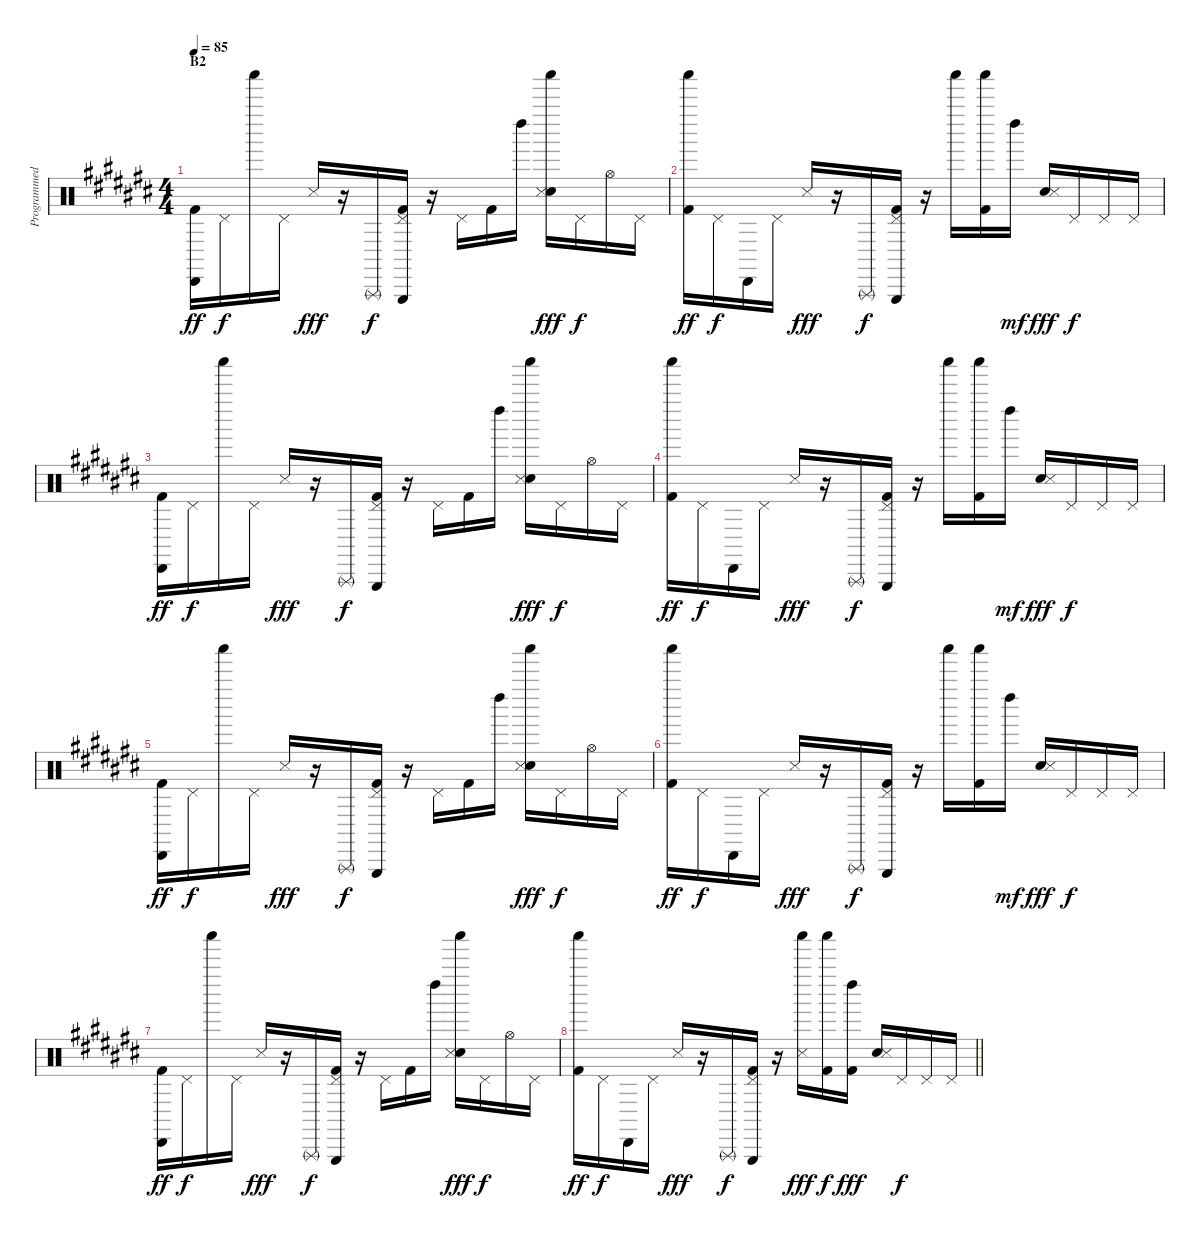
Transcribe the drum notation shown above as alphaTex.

\track ("Programmed Drum" "Programmed") {instrument percussion}
\staff {score}
\articulation defaults
\ts (4 4)
\section ("" "B2")
\tempo 85
\clef neutral
\ks c#
("Cabasa (hit)" "Kick (hit) 2").16{dy ff} "Pedal Hi-Hat (hit)".16{dy f} "Shaker (hit)".16 "Pedal Hi-Hat (hit)".16 "Snare (side stick) 3".16{dy fff} r.16 "Triangle (rnute)".16{dy f} ("Triangle (hit)" "Pedal Hi-Hat (hit)" "Kick (hit) 2").16 r.16 "Pedal Hi-Hat (hit)".16 "Kick (hit) 2".16 "Left Maraca (hit)".16 ("Shaker (hit)" "Hand Clap (hit)" "Snare (side stick) 3").16{dy fff} "Pedal Hi-Hat (hit)".16{dy f} "Hi-Hat (open)".16 "Pedal Hi-Hat (hit)".16 |
("Shaker (hit)" "Kick (hit) 2").16{dy ff} "Pedal Hi-Hat (hit)".16{dy f} "Cabasa (hit)".16 "Pedal Hi-Hat (hit)".16 "Snare (side stick) 3".16{dy fff} r.16 "Triangle (rnute)".16{dy f} ("Triangle (hit)" "Pedal Hi-Hat (hit)" "Kick (hit) 2").16 r.16 "Shaker (hit)".16 ("Shaker (hit)" "Kick (hit) 2").16 "Left Maraca (hit)".16{dy mf} ("Hand Clap (hit)" "Snare (side stick) 3").16{dy fff} "Pedal Hi-Hat (hit)".16{dy f} "Pedal Hi-Hat (hit)".16 "Pedal Hi-Hat (hit)".16 |
("Cabasa (hit)" "Kick (hit) 2").16{dy ff} "Pedal Hi-Hat (hit)".16{dy f} "Shaker (hit)".16 "Pedal Hi-Hat (hit)".16 "Snare (side stick) 3".16{dy fff} r.16 "Triangle (rnute)".16{dy f} ("Triangle (hit)" "Pedal Hi-Hat (hit)" "Kick (hit) 2").16 r.16 "Pedal Hi-Hat (hit)".16 "Kick (hit) 2".16 "Left Maraca (hit)".16 ("Shaker (hit)" "Hand Clap (hit)" "Snare (side stick) 3").16{dy fff} "Pedal Hi-Hat (hit)".16{dy f} "Hi-Hat (open)".16 "Pedal Hi-Hat (hit)".16 |
("Shaker (hit)" "Kick (hit) 2").16{dy ff} "Pedal Hi-Hat (hit)".16{dy f} "Cabasa (hit)".16 "Pedal Hi-Hat (hit)".16 "Snare (side stick) 3".16{dy fff} r.16 "Triangle (rnute)".16{dy f} ("Triangle (hit)" "Pedal Hi-Hat (hit)" "Kick (hit) 2").16 r.16 "Shaker (hit)".16 ("Shaker (hit)" "Kick (hit) 2").16 "Left Maraca (hit)".16{dy mf} ("Hand Clap (hit)" "Snare (side stick) 3").16{dy fff} "Pedal Hi-Hat (hit)".16{dy f} "Pedal Hi-Hat (hit)".16 "Pedal Hi-Hat (hit)".16 |
("Cabasa (hit)" "Kick (hit) 2").16{dy ff} "Pedal Hi-Hat (hit)".16{dy f} "Shaker (hit)".16 "Pedal Hi-Hat (hit)".16 "Snare (side stick) 3".16{dy fff} r.16 "Triangle (rnute)".16{dy f} ("Triangle (hit)" "Pedal Hi-Hat (hit)" "Kick (hit) 2").16 r.16 "Pedal Hi-Hat (hit)".16 "Kick (hit) 2".16 "Left Maraca (hit)".16 ("Shaker (hit)" "Hand Clap (hit)" "Snare (side stick) 3").16{dy fff} "Pedal Hi-Hat (hit)".16{dy f} "Hi-Hat (open)".16 "Pedal Hi-Hat (hit)".16 |
("Shaker (hit)" "Kick (hit) 2").16{dy ff} "Pedal Hi-Hat (hit)".16{dy f} "Cabasa (hit)".16 "Pedal Hi-Hat (hit)".16 "Snare (side stick) 3".16{dy fff} r.16 "Triangle (rnute)".16{dy f} ("Triangle (hit)" "Pedal Hi-Hat (hit)" "Kick (hit) 2").16 r.16 "Shaker (hit)".16 ("Shaker (hit)" "Kick (hit) 2").16 "Left Maraca (hit)".16{dy mf} ("Hand Clap (hit)" "Snare (side stick) 3").16{dy fff} "Pedal Hi-Hat (hit)".16{dy f} "Pedal Hi-Hat (hit)".16 "Pedal Hi-Hat (hit)".16 |
("Cabasa (hit)" "Kick (hit) 2").16{dy ff} "Pedal Hi-Hat (hit)".16{dy f} "Shaker (hit)".16 "Pedal Hi-Hat (hit)".16 "Snare (side stick) 3".16{dy fff} r.16 "Triangle (rnute)".16{dy f} ("Triangle (hit)" "Pedal Hi-Hat (hit)" "Kick (hit) 2").16 r.16 "Pedal Hi-Hat (hit)".16 "Kick (hit) 2".16 "Left Maraca (hit)".16 ("Shaker (hit)" "Hand Clap (hit)" "Snare (side stick) 3").16{dy fff} "Pedal Hi-Hat (hit)".16{dy f} "Hi-Hat (open)".16 "Pedal Hi-Hat (hit)".16 |
\barLineRight lightlight
("Shaker (hit)" "Kick (hit) 2").16{dy ff} "Pedal Hi-Hat (hit)".16{dy f} "Cabasa (hit)".16 "Pedal Hi-Hat (hit)".16 "Snare (side stick) 3".16{dy fff} r.16 "Triangle (rnute)".16{dy f} ("Triangle (hit)" "Pedal Hi-Hat (hit)" "Kick (hit) 2").16 r.16 ("Shaker (hit)" "Snare (side stick) 3").16{dy fff} ("Shaker (hit)" "Kick (hit) 2").16{dy f} ("Left Maraca (hit)" "Kick (hit) 2").16{dy fff} ("Hand Clap (hit)" "Snare (side stick) 3").16 "Pedal Hi-Hat (hit)".16{dy f} "Pedal Hi-Hat (hit)".16 "Pedal Hi-Hat (hit)".16
